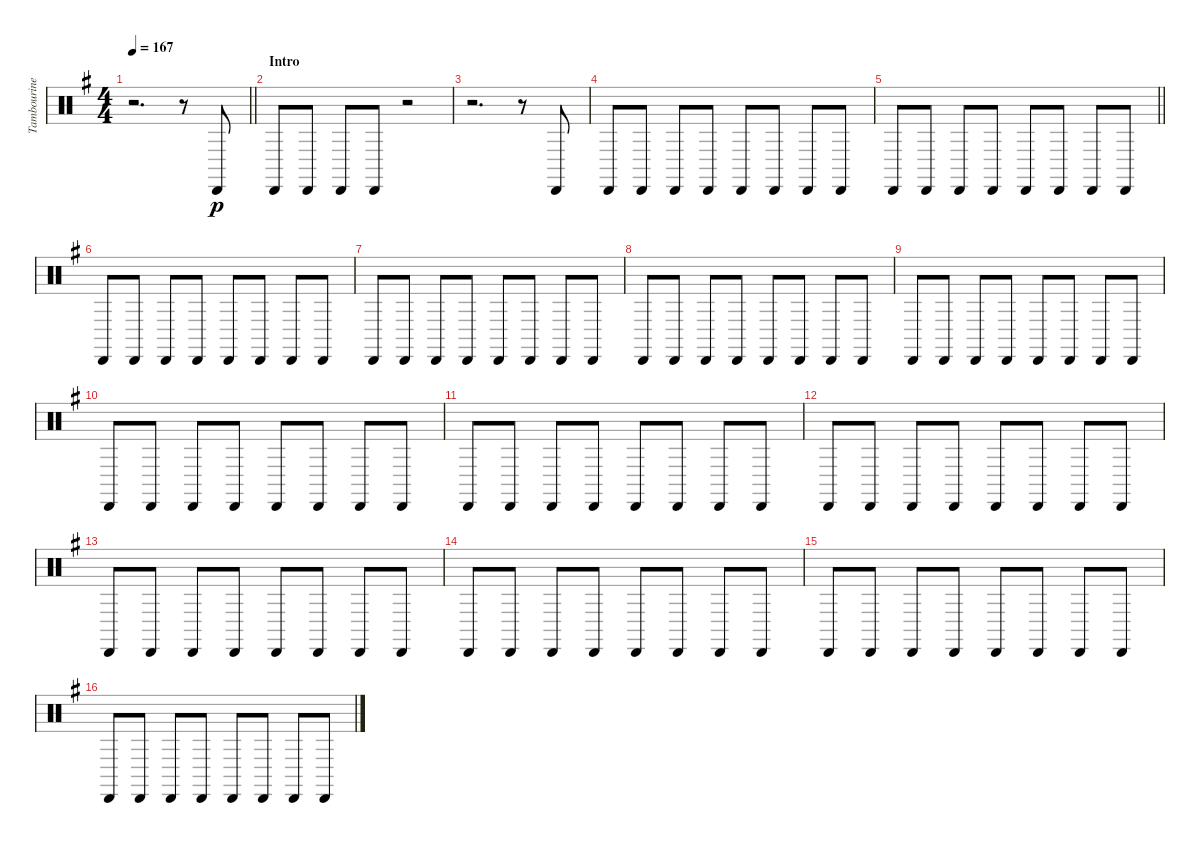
\track ("Tambourine" "Tambourine") {instrument percussion}
\staff {score}
\articulation defaults
\ts (4 4)
\tempo 167
\clef neutral
\barLineRight lightlight
\ks eminor
r.2{d dy p} r.8 "Cabasa (hit)".8 |
\section ("" "Intro")
"Cabasa (hit)".8 "Cabasa (hit)".8 "Cabasa (hit)".8 "Cabasa (hit)".8 r.2 |
r.2{d} r.8 "Cabasa (hit)".8 |
"Cabasa (hit)".8 "Cabasa (hit)".8 "Cabasa (hit)".8 "Cabasa (hit)".8 "Cabasa (hit)".8 "Cabasa (hit)".8 "Cabasa (hit)".8 "Cabasa (hit)".8 |
\barLineRight lightlight "Cabasa (hit)".8 "Cabasa (hit)".8 "Cabasa (hit)".8 "Cabasa (hit)".8 "Cabasa (hit)".8 "Cabasa (hit)".8 "Cabasa (hit)".8 "Cabasa (hit)".8
|
"Cabasa (hit)".8 "Cabasa (hit)".8 "Cabasa (hit)".8 "Cabasa (hit)".8 "Cabasa (hit)".8 "Cabasa (hit)".8 "Cabasa (hit)".8 "Cabasa (hit)".8 |
"Cabasa (hit)".8 "Cabasa (hit)".8 "Cabasa (hit)".8 "Cabasa (hit)".8 "Cabasa (hit)".8 "Cabasa (hit)".8 "Cabasa (hit)".8 "Cabasa (hit)".8 |
"Cabasa (hit)".8 "Cabasa (hit)".8 "Cabasa (hit)".8 "Cabasa (hit)".8 "Cabasa (hit)".8 "Cabasa (hit)".8 "Cabasa (hit)".8 "Cabasa (hit)".8 |
"Cabasa (hit)".8 "Cabasa (hit)".8 "Cabasa (hit)".8 "Cabasa (hit)".8 "Cabasa (hit)".8 "Cabasa (hit)".8 "Cabasa (hit)".8 "Cabasa (hit)".8 |
"Cabasa (hit)".8 "Cabasa (hit)".8 "Cabasa (hit)".8 "Cabasa (hit)".8 "Cabasa (hit)".8 "Cabasa (hit)".8 "Cabasa (hit)".8 "Cabasa (hit)".8 |
"Cabasa (hit)".8 "Cabasa (hit)".8 "Cabasa (hit)".8 "Cabasa (hit)".8 "Cabasa (hit)".8 "Cabasa (hit)".8 "Cabasa (hit)".8 "Cabasa (hit)".8 |
"Cabasa (hit)".8 "Cabasa (hit)".8 "Cabasa (hit)".8 "Cabasa (hit)".8 "Cabasa (hit)".8 "Cabasa (hit)".8 "Cabasa (hit)".8 "Cabasa (hit)".8 |
"Cabasa (hit)".8 "Cabasa (hit)".8 "Cabasa (hit)".8 "Cabasa (hit)".8 "Cabasa (hit)".8 "Cabasa (hit)".8 "Cabasa (hit)".8 "Cabasa (hit)".8 |
"Cabasa (hit)".8 "Cabasa (hit)".8 "Cabasa (hit)".8 "Cabasa (hit)".8 "Cabasa (hit)".8 "Cabasa (hit)".8 "Cabasa (hit)".8 "Cabasa (hit)".8 |
"Cabasa (hit)".8 "Cabasa (hit)".8 "Cabasa (hit)".8 "Cabasa (hit)".8 "Cabasa (hit)".8 "Cabasa (hit)".8 "Cabasa (hit)".8 "Cabasa (hit)".8 |
"Cabasa (hit)".8 "Cabasa (hit)".8 "Cabasa (hit)".8 "Cabasa (hit)".8 "Cabasa (hit)".8 "Cabasa (hit)".8 "Cabasa (hit)".8 "Cabasa (hit)".8
